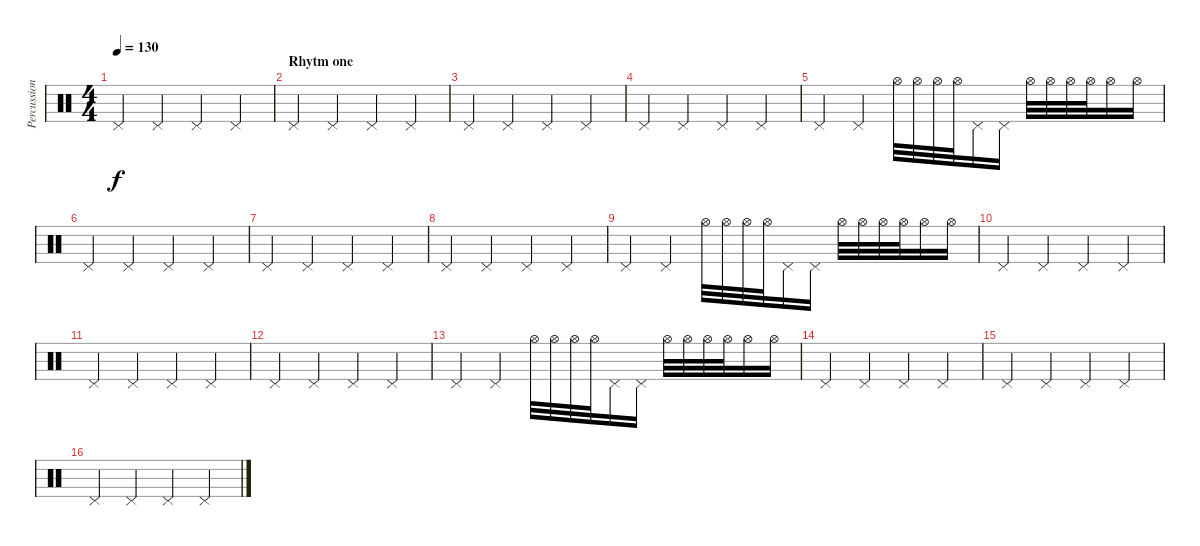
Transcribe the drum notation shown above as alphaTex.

\track ("Percussion" "Percussion") {instrument percussion}
\staff {score}
\articulation defaults
\ts (4 4)
\tempo 130
\clef neutral
\ks c "Pedal Hi-Hat (hit)".4{dy f} "Pedal Hi-Hat (hit)".4 "Pedal Hi-Hat (hit)".4 "Pedal Hi-Hat (hit)".4
|
\section ("" "Rhytm one")
"Pedal Hi-Hat (hit)".4 "Pedal Hi-Hat (hit)".4 "Pedal Hi-Hat (hit)".4 "Pedal Hi-Hat (hit)".4 |
"Pedal Hi-Hat (hit)".4 "Pedal Hi-Hat (hit)".4 "Pedal Hi-Hat (hit)".4 "Pedal Hi-Hat (hit)".4 |
"Pedal Hi-Hat (hit)".4 "Pedal Hi-Hat (hit)".4 "Pedal Hi-Hat (hit)".4 "Pedal Hi-Hat (hit)".4 |
"Pedal Hi-Hat (hit)".4 "Pedal Hi-Hat (hit)".4 "Hi-Hat (open)".32 "Hi-Hat (open)".32 "Hi-Hat (open)".32 "Hi-Hat (open)".32 "Pedal Hi-Hat (hit)".16 "Pedal Hi-Hat (hit)".16 "Hi-Hat (open)".32 "Hi-Hat (open)".32 "Hi-Hat (open)".32 "Hi-Hat (open)".32 "Hi-Hat (open)".16 "Hi-Hat (open)".16 |
"Pedal Hi-Hat (hit)".4 "Pedal Hi-Hat (hit)".4 "Pedal Hi-Hat (hit)".4 "Pedal Hi-Hat (hit)".4 |
"Pedal Hi-Hat (hit)".4 "Pedal Hi-Hat (hit)".4 "Pedal Hi-Hat (hit)".4 "Pedal Hi-Hat (hit)".4 |
"Pedal Hi-Hat (hit)".4 "Pedal Hi-Hat (hit)".4 "Pedal Hi-Hat (hit)".4 "Pedal Hi-Hat (hit)".4 |
"Pedal Hi-Hat (hit)".4 "Pedal Hi-Hat (hit)".4 "Hi-Hat (open)".32 "Hi-Hat (open)".32 "Hi-Hat (open)".32 "Hi-Hat (open)".32 "Pedal Hi-Hat (hit)".16 "Pedal Hi-Hat (hit)".16 "Hi-Hat (open)".32 "Hi-Hat (open)".32 "Hi-Hat (open)".32 "Hi-Hat (open)".32 "Hi-Hat (open)".16 "Hi-Hat (open)".16 |
"Pedal Hi-Hat (hit)".4 "Pedal Hi-Hat (hit)".4 "Pedal Hi-Hat (hit)".4 "Pedal Hi-Hat (hit)".4 |
"Pedal Hi-Hat (hit)".4 "Pedal Hi-Hat (hit)".4 "Pedal Hi-Hat (hit)".4 "Pedal Hi-Hat (hit)".4 |
"Pedal Hi-Hat (hit)".4 "Pedal Hi-Hat (hit)".4 "Pedal Hi-Hat (hit)".4 "Pedal Hi-Hat (hit)".4 |
"Pedal Hi-Hat (hit)".4 "Pedal Hi-Hat (hit)".4 "Hi-Hat (open)".32 "Hi-Hat (open)".32 "Hi-Hat (open)".32 "Hi-Hat (open)".32 "Pedal Hi-Hat (hit)".16 "Pedal Hi-Hat (hit)".16 "Hi-Hat (open)".32 "Hi-Hat (open)".32 "Hi-Hat (open)".32 "Hi-Hat (open)".32 "Hi-Hat (open)".16 "Hi-Hat (open)".16 |
"Pedal Hi-Hat (hit)".4 "Pedal Hi-Hat (hit)".4 "Pedal Hi-Hat (hit)".4 "Pedal Hi-Hat (hit)".4 |
"Pedal Hi-Hat (hit)".4 "Pedal Hi-Hat (hit)".4 "Pedal Hi-Hat (hit)".4 "Pedal Hi-Hat (hit)".4 |
"Pedal Hi-Hat (hit)".4 "Pedal Hi-Hat (hit)".4 "Pedal Hi-Hat (hit)".4 "Pedal Hi-Hat (hit)".4
